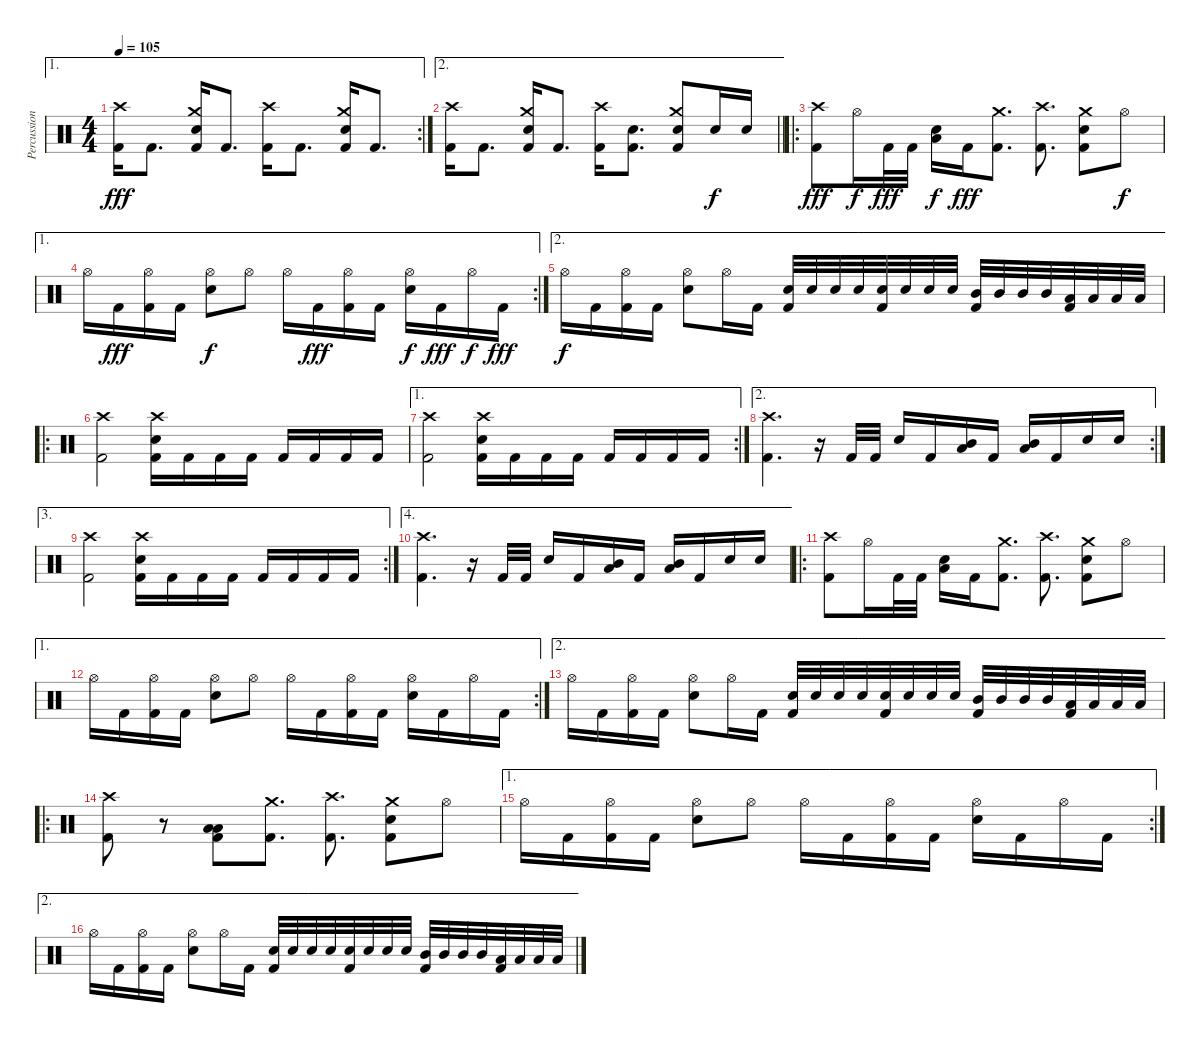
\track ("Percussion" "Percussion") {instrument percussion}
\staff {score}
\articulation defaults
\ae 1
\rc 2
\ts (4 4)
\tempo 105
\clef neutral
\ks c
("Crash high (hit)" "Kick (hit) 2").16{dy fff} "Kick (hit) 2".8{d} ("Crash medium (hit)" "Electric Snare (hit)" "Kick (hit) 2").16 "Kick (hit) 2".8{d} ("Crash high (hit)" "Kick (hit) 2").16 "Kick (hit) 2".8{d} ("Crash medium (hit)" "Electric Snare (hit)" "Kick (hit) 2").16 "Kick (hit) 2".8{d} |
\ae 2
\barLineRight lightlight
("Crash high (hit)" "Kick (hit) 2").16 "Kick (hit) 2".8{d} ("Crash medium (hit)" "Electric Snare (hit)" "Kick (hit) 2").16 "Kick (hit) 2".8{d} ("Crash high (hit)" "Kick (hit) 2").16 ("Electric Snare (hit)" "Kick (hit) 2").8{d} ("Crash medium (hit)" "Electric Snare (hit)" "Kick (hit) 2").8 "Electric Snare (hit)".16{dy f} "Electric Snare (hit)".16 |
\ro
("Crash high (hit)" "Kick (hit) 2").8{dy fff} "Hi-Hat (open)".16{dy f} "Kick (hit) 2".32{dy fff} "Kick (hit) 2".32 ("Low Tom (hit)" "Electric Snare (hit)").16{dy f} "Kick (hit) 2".16{dy fff} ("Crash medium (hit)" "Kick (hit) 2").8{d} ("Crash high (hit)" "Kick (hit) 2").8{d} ("Crash medium (hit)" "Electric Snare (hit)" "Kick (hit) 2").8 "Hi-Hat (open)".8{dy f} |
\ae 1
\rc 2 "Hi-Hat (open)".16 "Kick (hit) 2".16{dy fff}
("Hi-Hat (open)" "Kick (hit) 2").16 "Kick (hit) 2".16 ("Hi-Hat (open)" "Electric Snare (hit)").8{dy f} "Hi-Hat (open)".8 "Hi-Hat (open)".16 "Kick (hit) 2".16{dy fff} ("Hi-Hat (open)" "Kick (hit) 2").16 "Kick (hit) 2".16 ("Hi-Hat (open)" "Electric Snare (hit)").16{dy f} "Kick (hit) 2".16{dy fff} "Hi-Hat (open)".16{dy f} "Kick (hit) 2".16{dy fff} |
\ae 2 "Hi-Hat (open)".16{dy f} "Kick (hit) 2".16
("Hi-Hat (open)" "Kick (hit) 2").16 "Kick (hit) 2".16 ("Hi-Hat (open)" "Electric Snare (hit)").8 "Hi-Hat (open)".16 "Kick (hit) 2".16 ("Electric Snare (hit)" "Kick (hit) 2").32 "Electric Snare (hit)".32 "Electric Snare (hit)".32 "Electric Snare (hit)".32 ("Electric Snare (hit)" "Kick (hit) 2").32 "Electric Snare (hit)".32 "Electric Snare (hit)".32 "Electric Snare (hit)".32 ("Mid Tom (hit)" "Kick (hit) 2").32 "Mid Tom (hit)".32 "Mid Tom (hit)".32 "Mid Tom (hit)".32 ("Low Tom (hit)" "Kick (hit) 2").32 "Low Tom (hit)".32 "Low Tom (hit)".32 "Low Tom (hit)".32 |
\ro
("Crash high (hit)" "Kick (hit) 2").2 ("Crash high (hit)" "Electric Snare (hit)" "Kick (hit) 2").16 "Kick (hit) 2".16 "Kick (hit) 2".16 "Kick (hit) 2".16 "Kick (hit) 2".16 "Kick (hit) 2".16 "Kick (hit) 2".16 "Kick (hit) 2".16 |
\ae 1
\rc 2
("Crash high (hit)" "Kick (hit) 2").2 ("Crash high (hit)" "Electric Snare (hit)" "Kick (hit) 2").16 "Kick (hit) 2".16 "Kick (hit) 2".16 "Kick (hit) 2".16 "Kick (hit) 2".16 "Kick (hit) 2".16 "Kick (hit) 2".16 "Kick (hit) 2".16 |
\ae 2
\rc 2
("Crash high (hit)" "Kick (hit) 2").4{d} r.16 "Kick (hit) 2".32 "Kick (hit) 2".32 "Electric Snare (hit)".16 "Kick (hit) 2".16 ("Mid Tom (hit)" "Low Tom (hit)").16 "Kick (hit) 2".16 ("Mid Tom (hit)" "Low Tom (hit)").16 "Kick (hit) 2".16 "Electric Snare (hit)".16 "Electric Snare (hit)".16 |
\ae 3
\rc 2
("Crash high (hit)" "Kick (hit) 2").2 ("Crash high (hit)" "Electric Snare (hit)" "Kick (hit) 2").16 "Kick (hit) 2".16 "Kick (hit) 2".16 "Kick (hit) 2".16 "Kick (hit) 2".16 "Kick (hit) 2".16 "Kick (hit) 2".16 "Kick (hit) 2".16 |
\ae 4
("Crash high (hit)" "Kick (hit) 2").4{d} r.16 "Kick (hit) 2".32 "Kick (hit) 2".32 "Electric Snare (hit)".16 "Kick (hit) 2".16 ("Mid Tom (hit)" "Low Tom (hit)").16 "Kick (hit) 2".16 ("Mid Tom (hit)" "Low Tom (hit)").16 "Kick (hit) 2".16 "Electric Snare (hit)".16 "Electric Snare (hit)".16 |
\ro
("Crash high (hit)" "Kick (hit) 2").8 "Hi-Hat (open)".16 "Kick (hit) 2".32 "Kick (hit) 2".32 ("Low Tom (hit)" "Electric Snare (hit)").16 "Kick (hit) 2".16 ("Crash medium (hit)" "Kick (hit) 2").8{d} ("Crash high (hit)" "Kick (hit) 2").8{d} ("Crash medium (hit)" "Electric Snare (hit)" "Kick (hit) 2").8 "Hi-Hat (open)".8 |
\ae 1
\rc 2 "Hi-Hat (open)".16 "Kick (hit) 2".16
("Hi-Hat (open)" "Kick (hit) 2").16 "Kick (hit) 2".16 ("Hi-Hat (open)" "Electric Snare (hit)").8 "Hi-Hat (open)".8 "Hi-Hat (open)".16 "Kick (hit) 2".16 ("Hi-Hat (open)" "Kick (hit) 2").16 "Kick (hit) 2".16 ("Hi-Hat (open)" "Electric Snare (hit)").16 "Kick (hit) 2".16 "Hi-Hat (open)".16 "Kick (hit) 2".16 |
\ae 2 "Hi-Hat (open)".16 "Kick (hit) 2".16
("Hi-Hat (open)" "Kick (hit) 2").16 "Kick (hit) 2".16 ("Hi-Hat (open)" "Electric Snare (hit)").8 "Hi-Hat (open)".16 "Kick (hit) 2".16 ("Electric Snare (hit)" "Kick (hit) 2").32 "Electric Snare (hit)".32 "Electric Snare (hit)".32 "Electric Snare (hit)".32 ("Electric Snare (hit)" "Kick (hit) 2").32 "Electric Snare (hit)".32 "Electric Snare (hit)".32 "Electric Snare (hit)".32 ("Mid Tom (hit)" "Kick (hit) 2").32 "Mid Tom (hit)".32 "Mid Tom (hit)".32 "Mid Tom (hit)".32 ("Low Tom (hit)" "Kick (hit) 2").32 "Low Tom (hit)".32 "Low Tom (hit)".32 "Low Tom (hit)".32 |
\ro
("Crash high (hit)" "Kick (hit) 2").8 r.8 ("Low Tom (hit)" "Low Tom (hit)" "Kick (hit) 2").8 ("Crash medium (hit)" "Kick (hit) 2").8{d} ("Crash high (hit)" "Kick (hit) 2").8{d} ("Crash medium (hit)" "Electric Snare (hit)" "Kick (hit) 2").8 "Hi-Hat (open)".8 |
\ae 1
\rc 2 "Hi-Hat (open)".16 "Kick (hit) 2".16
("Hi-Hat (open)" "Kick (hit) 2").16 "Kick (hit) 2".16 ("Hi-Hat (open)" "Electric Snare (hit)").8 "Hi-Hat (open)".8 "Hi-Hat (open)".16 "Kick (hit) 2".16 ("Hi-Hat (open)" "Kick (hit) 2").16 "Kick (hit) 2".16 ("Hi-Hat (open)" "Electric Snare (hit)").16 "Kick (hit) 2".16 "Hi-Hat (open)".16 "Kick (hit) 2".16 |
\ae 2 "Hi-Hat (open)".16 "Kick (hit) 2".16
("Hi-Hat (open)" "Kick (hit) 2").16 "Kick (hit) 2".16 ("Hi-Hat (open)" "Electric Snare (hit)").8 "Hi-Hat (open)".16 "Kick (hit) 2".16 ("Electric Snare (hit)" "Kick (hit) 2").32 "Electric Snare (hit)".32 "Electric Snare (hit)".32 "Electric Snare (hit)".32 ("Electric Snare (hit)" "Kick (hit) 2").32 "Electric Snare (hit)".32 "Electric Snare (hit)".32 "Electric Snare (hit)".32 ("Mid Tom (hit)" "Kick (hit) 2").32 "Mid Tom (hit)".32 "Mid Tom (hit)".32 "Mid Tom (hit)".32 ("Low Tom (hit)" "Kick (hit) 2").32 "Low Tom (hit)".32 "Low Tom (hit)".32 "Low Tom (hit)".32
